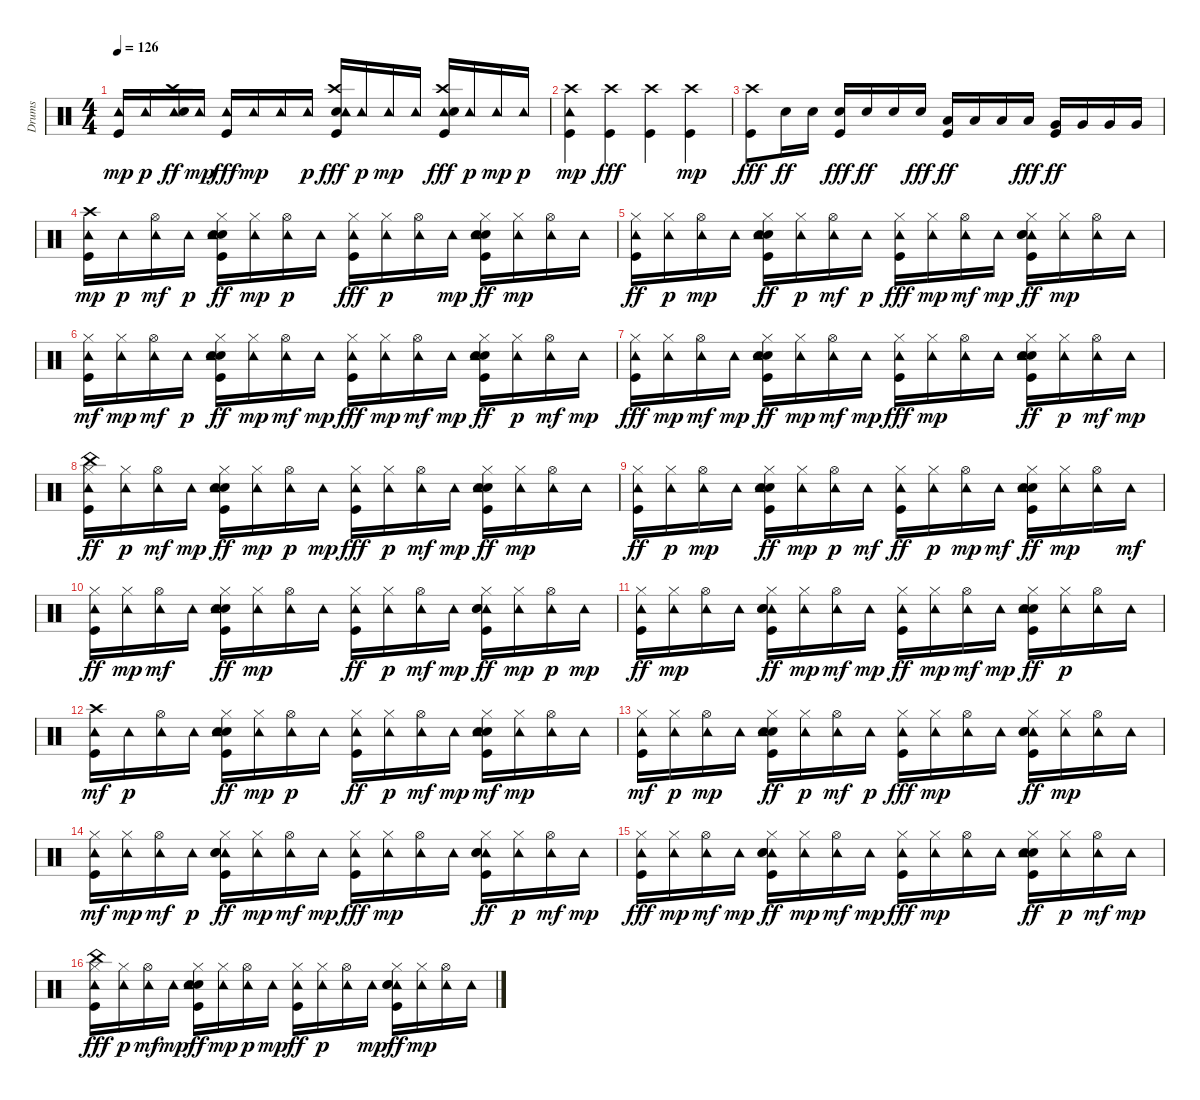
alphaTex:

\track ("Drums" "Drums") {instrument percussion}
\staff {score}
\articulation defaults
\ts (4 4)
\tempo 126
\clef neutral
\ks c
("Kick (hit)" "Tambourine (hit)").16{dy mp} "Tambourine (hit)".16{dy p} ("Crash high (hit)" "Tambourine (hit)" "Snare (hit) 2").16{dy ff} "Tambourine (hit)".16{dy mp} ("Tambourine (hit)" "Kick (hit)").16{dy fff} "Tambourine (hit)".16{dy mp} "Tambourine (hit)".16 "Tambourine (hit)".16{dy p} ("Snare (hit) 2" "Tambourine (hit)" "Crash high (hit)" "Kick (hit)").16{dy fff} "Tambourine (hit)".16{dy p} "Tambourine (hit)".16{dy mp} "Tambourine (hit)".16 ("Crash high (hit)" "Tambourine (hit)" "Snare (hit) 2" "Kick (hit)").16{dy fff} "Tambourine (hit)".16{dy p} "Tambourine (hit)".16{dy mp} "Tambourine (hit)".16{dy p} |
("Tambourine (hit)" "Kick (hit)" "Crash high (hit)").4{dy mp} ("Crash high (hit)" "Kick (hit)").4{dy fff} ("Crash high (hit)" "Kick (hit)").4 ("Kick (hit)" "Crash high (hit)").4{dy mp} |
("Crash high (hit)" "Kick (hit)").8{dy fff} "Snare (hit) 2".16{dy ff} "Snare (hit) 2".16 ("Kick (hit)" "Snare (hit) 2").16{dy fff} "Snare (hit) 2".16{dy ff} "Snare (hit) 2".16 "Snare (hit) 2".16{dy fff} ("Kick (hit)" "Low Tom (hit)").16{dy ff} "Low Tom (hit)".16 "Low Tom (hit)".16 "Low Tom (hit)".16{dy fff} ("Kick (hit)" "Very Low Tom (hit)").16{dy ff} "Very Low Tom (hit)".16 "Very Low Tom (hit)".16 "Very Low Tom (hit)".16 |
("Tambourine (hit)" "Kick (hit)" "Crash high (hit)").16{dy mp} "Tambourine (hit)".16{dy p} ("Tambourine (hit)" "Hi-Hat (open)").16{dy mf} "Tambourine (hit)".16{dy p} ("Hand Clap (hit)" "Tambourine (hit)" "Kick (hit)" "Snare (hit) 2" "Hi-Hat (closed)").16{dy ff} ("Tambourine (hit)" "Hi-Hat (closed)").16{dy mp} ("Hi-Hat (open)" "Tambourine (hit)").16{dy p} "Tambourine (hit)".16 ("Tambourine (hit)" "Hi-Hat (closed)" "Kick (hit)").16{dy fff} ("Hi-Hat (closed)" "Tambourine (hit)").16{dy p} ("Hi-Hat (open)" "Tambourine (hit)").16 "Tambourine (hit)".16{dy mp} ("Hand Clap (hit)" "Tambourine (hit)" "Kick (hit)" "Snare (hit) 2" "Hi-Hat (closed)").16{dy ff} ("Hi-Hat (closed)" "Tambourine (hit)").16{dy mp} ("Hi-Hat (open)" "Tambourine (hit)").16 "Tambourine (hit)".16 |
("Kick (hit)" "Tambourine (hit)" "Hi-Hat (closed)").16{dy ff} ("Hi-Hat (closed)" "Tambourine (hit)").16{dy p} ("Hi-Hat (open)" "Tambourine (hit)").16{dy mp} "Tambourine (hit)".16 ("Hand Clap (hit)" "Tambourine (hit)" "Kick (hit)" "Snare (hit) 2" "Hi-Hat (closed)").16{dy ff} ("Tambourine (hit)" "Hi-Hat (closed)").16{dy p} ("Tambourine (hit)" "Hi-Hat (open)").16{dy mf} "Tambourine (hit)".16{dy p} ("Tambourine (hit)" "Hi-Hat (closed)" "Kick (hit)").16{dy fff} ("Tambourine (hit)" "Hi-Hat (closed)").16{dy mp} ("Tambourine (hit)" "Hi-Hat (open)").16{dy mf} "Tambourine (hit)".16{dy mp} ("Tambourine (hit)" "Hi-Hat (closed)" "Kick (hit)" "Snare (hit) 2" "Hand Clap (hit)").16{dy ff} ("Tambourine (hit)" "Hi-Hat (closed)").16{dy mp} ("Hi-Hat (open)" "Tambourine (hit)").16 "Tambourine (hit)".16 |
("Hi-Hat (closed)" "Kick (hit)" "Tambourine (hit)").16{dy mf} ("Tambourine (hit)" "Hi-Hat (closed)").16{dy mp} ("Tambourine (hit)" "Hi-Hat (open)").16{dy mf} "Tambourine (hit)".16{dy p} ("Hand Clap (hit)" "Tambourine (hit)" "Hi-Hat (closed)" "Kick (hit)" "Snare (hit) 2").16{dy ff} ("Tambourine (hit)" "Hi-Hat (closed)").16{dy mp} ("Tambourine (hit)" "Hi-Hat (open)").16{dy mf} "Tambourine (hit)".16{dy mp} ("Tambourine (hit)" "Hi-Hat (closed)" "Kick (hit)").16{dy fff} ("Tambourine (hit)" "Hi-Hat (closed)").16{dy mp} ("Tambourine (hit)" "Hi-Hat (open)").16{dy mf} "Tambourine (hit)".16{dy mp} ("Hand Clap (hit)" "Tambourine (hit)" "Hi-Hat (closed)" "Kick (hit)" "Snare (hit) 2").16{dy ff} ("Tambourine (hit)" "Hi-Hat (closed)").16{dy p} ("Tambourine (hit)" "Hi-Hat (open)").16{dy mf} "Tambourine (hit)".16{dy mp} |
("Tambourine (hit)" "Hi-Hat (closed)" "Kick (hit)").16{dy fff} ("Tambourine (hit)" "Hi-Hat (closed)").16{dy mp} ("Tambourine (hit)" "Hi-Hat (open)").16{dy mf} "Tambourine (hit)".16{dy mp} ("Hand Clap (hit)" "Tambourine (hit)" "Hi-Hat (closed)" "Kick (hit)" "Snare (hit) 2").16{dy ff} ("Tambourine (hit)" "Hi-Hat (closed)").16{dy mp} ("Tambourine (hit)" "Hi-Hat (open)").16{dy mf} "Tambourine (hit)".16{dy mp} ("Tambourine (hit)" "Hi-Hat (closed)" "Kick (hit)").16{dy fff} ("Tambourine (hit)" "Hi-Hat (closed)").16{dy mp} ("Hi-Hat (open)" "Tambourine (hit)").16 "Tambourine (hit)".16 ("Hand Clap (hit)" "Kick (hit)" "Snare (hit) 2" "Tambourine (hit)" "Hi-Hat (closed)").16{dy ff} ("Tambourine (hit)" "Hi-Hat (closed)").16{dy p} ("Tambourine (hit)" "Hi-Hat (open)").16{dy mf} "Tambourine (hit)".16{dy mp} |
("Kick (hit)" "China (hit)" "Tambourine (hit)" "Hi-Hat (closed)").16{dy ff} ("Tambourine (hit)" "Hi-Hat (closed)").16{dy p} ("Tambourine (hit)" "Hi-Hat (open)").16{dy mf} "Tambourine (hit)".16{dy mp} ("Hand Clap (hit)" "Kick (hit)" "Snare (hit) 2" "Tambourine (hit)" "Hi-Hat (closed)").16{dy ff} ("Tambourine (hit)" "Hi-Hat (closed)").16{dy mp} ("Hi-Hat (open)" "Tambourine (hit)").16{dy p} "Tambourine (hit)".16{dy mp} ("Tambourine (hit)" "Hi-Hat (closed)" "Kick (hit)").16{dy fff} ("Hi-Hat (closed)" "Tambourine (hit)").16{dy p} ("Tambourine (hit)" "Hi-Hat (open)").16{dy mf} "Tambourine (hit)".16{dy mp} ("Hand Clap (hit)" "Tambourine (hit)" "Kick (hit)" "Snare (hit) 2" "Hi-Hat (closed)").16{dy ff} ("Tambourine (hit)" "Hi-Hat (closed)").16{dy mp} ("Hi-Hat (open)" "Tambourine (hit)").16 "Tambourine (hit)".16 |
("Kick (hit)" "Tambourine (hit)" "Hi-Hat (closed)").16{dy ff} ("Hi-Hat (closed)" "Tambourine (hit)").16{dy p} ("Hi-Hat (open)" "Tambourine (hit)").16{dy mp} "Tambourine (hit)".16 ("Kick (hit)" "Snare (hit) 2" "Hi-Hat (closed)" "Tambourine (hit)" "Hand Clap (hit)").16{dy ff} ("Tambourine (hit)" "Hi-Hat (closed)").16{dy mp} ("Hi-Hat (open)" "Tambourine (hit)").16{dy p} "Tambourine (hit)".16{dy mf} ("Kick (hit)" "Tambourine (hit)" "Hi-Hat (closed)").16{dy ff} ("Tambourine (hit)" "Hi-Hat (closed)").16{dy p} ("Hi-Hat (open)" "Tambourine (hit)").16{dy mp} "Tambourine (hit)".16{dy mf} ("Hand Clap (hit)" "Tambourine (hit)" "Hi-Hat (closed)" "Kick (hit)" "Snare (hit) 2").16{dy ff} ("Tambourine (hit)" "Hi-Hat (closed)").16{dy mp} ("Hi-Hat (open)" "Tambourine (hit)").16 "Tambourine (hit)".16{dy mf} |
("Kick (hit)" "Tambourine (hit)" "Hi-Hat (closed)").16{dy ff} ("Tambourine (hit)" "Hi-Hat (closed)").16{dy mp} ("Tambourine (hit)" "Hi-Hat (open)").16{dy mf} "Tambourine (hit)".16 ("Hand Clap (hit)" "Tambourine (hit)" "Kick (hit)" "Snare (hit) 2" "Hi-Hat (closed)").16{dy ff} ("Tambourine (hit)" "Hi-Hat (closed)").16{dy mp} ("Hi-Hat (open)" "Tambourine (hit)").16 "Tambourine (hit)".16 ("Kick (hit)" "Tambourine (hit)" "Hi-Hat (closed)").16{dy ff} ("Tambourine (hit)" "Hi-Hat (closed)").16{dy p} ("Tambourine (hit)" "Hi-Hat (open)").16{dy mf} "Tambourine (hit)".16{dy mp} ("Tambourine (hit)" "Hi-Hat (closed)" "Kick (hit)" "Snare (hit) 2" "Hand Clap (hit)").16{dy ff} ("Tambourine (hit)" "Hi-Hat (closed)").16{dy mp} ("Hi-Hat (open)" "Tambourine (hit)").16{dy p} "Tambourine (hit)".16{dy mp} |
("Kick (hit)" "Tambourine (hit)" "Hi-Hat (closed)").16{dy ff} ("Tambourine (hit)" "Hi-Hat (closed)").16{dy mp} ("Hi-Hat (open)" "Tambourine (hit)").16 "Tambourine (hit)".16 ("Hi-Hat (closed)" "Tambourine (hit)" "Kick (hit)" "Snare (hit) 2" "Hand Clap (hit)").16{dy ff} ("Hi-Hat (closed)" "Tambourine (hit)").16{dy mp} ("Tambourine (hit)" "Hi-Hat (open)").16{dy mf} "Tambourine (hit)".16{dy mp} ("Kick (hit)" "Tambourine (hit)" "Hi-Hat (closed)").16{dy ff} ("Tambourine (hit)" "Hi-Hat (closed)").16{dy mp} ("Tambourine (hit)" "Hi-Hat (open)").16{dy mf} "Tambourine (hit)".16{dy mp} ("Snare (hit) 2" "Kick (hit)" "Hand Clap (hit)" "Tambourine (hit)" "Hi-Hat (closed)").16{dy ff} ("Hi-Hat (closed)" "Tambourine (hit)").16{dy p} ("Hi-Hat (open)" "Tambourine (hit)").16 "Tambourine (hit)".16 |
("Kick (hit)" "Crash high (hit)" "Tambourine (hit)").16{dy mf} "Tambourine (hit)".16{dy p} ("Hi-Hat (open)" "Tambourine (hit)").16 "Tambourine (hit)".16 ("Kick (hit)" "Snare (hit) 2" "Hand Clap (hit)" "Tambourine (hit)" "Hi-Hat (closed)").16{dy ff} ("Tambourine (hit)" "Hi-Hat (closed)").16{dy mp} ("Hi-Hat (open)" "Tambourine (hit)").16{dy p} "Tambourine (hit)".16 ("Kick (hit)" "Tambourine (hit)" "Hi-Hat (closed)").16{dy ff} ("Tambourine (hit)" "Hi-Hat (closed)").16{dy p} ("Tambourine (hit)" "Hi-Hat (open)").16{dy mf} "Tambourine (hit)".16{dy mp} ("Hand Clap (hit)" "Kick (hit)" "Snare (hit) 2" "Tambourine (hit)" "Hi-Hat (closed)").16{dy mf} ("Tambourine (hit)" "Hi-Hat (closed)").16{dy mp} ("Hi-Hat (open)" "Tambourine (hit)").16 "Tambourine (hit)".16 |
("Hi-Hat (closed)" "Kick (hit)" "Tambourine (hit)").16{dy mf} ("Hi-Hat (closed)" "Tambourine (hit)").16{dy p} ("Hi-Hat (open)" "Tambourine (hit)").16{dy mp} "Tambourine (hit)".16 ("Kick (hit)" "Snare (hit) 2" "Tambourine (hit)" "Hand Clap (hit)" "Hi-Hat (closed)").16{dy ff} ("Tambourine (hit)" "Hi-Hat (closed)").16{dy p} ("Tambourine (hit)" "Hi-Hat (open)").16{dy mf} "Tambourine (hit)".16{dy p} ("Tambourine (hit)" "Hi-Hat (closed)" "Kick (hit)").16{dy fff} ("Tambourine (hit)" "Hi-Hat (closed)").16{dy mp} ("Hi-Hat (open)" "Tambourine (hit)").16 "Tambourine (hit)".16 ("Tambourine (hit)" "Hand Clap (hit)" "Hi-Hat (closed)" "Kick (hit)" "Snare (hit) 2").16{dy ff} ("Tambourine (hit)" "Hi-Hat (closed)").16{dy mp} ("Hi-Hat (open)" "Tambourine (hit)").16 "Tambourine (hit)".16 |
("Hi-Hat (closed)" "Kick (hit)" "Tambourine (hit)").16{dy mf} ("Tambourine (hit)" "Hi-Hat (closed)").16{dy mp} ("Tambourine (hit)" "Hi-Hat (open)").16{dy mf} "Tambourine (hit)".16{dy p} ("Tambourine (hit)" "Hand Clap (hit)" "Kick (hit)" "Snare (hit) 2" "Hi-Hat (closed)").16{dy ff} ("Tambourine (hit)" "Hi-Hat (closed)").16{dy mp} ("Tambourine (hit)" "Hi-Hat (open)").16{dy mf} "Tambourine (hit)".16{dy mp} ("Tambourine (hit)" "Hi-Hat (closed)" "Kick (hit)").16{dy fff} ("Hi-Hat (closed)" "Tambourine (hit)").16{dy mp} ("Hi-Hat (open)" "Tambourine (hit)").16 "Tambourine (hit)".16 ("Hi-Hat (closed)" "Tambourine (hit)" "Kick (hit)" "Snare (hit) 2" "Hand Clap (hit)").16{dy ff} ("Tambourine (hit)" "Hi-Hat (closed)").16{dy p} ("Tambourine (hit)" "Hi-Hat (open)").16{dy mf} "Tambourine (hit)".16{dy mp} |
("Tambourine (hit)" "Hi-Hat (closed)" "Kick (hit)").16{dy fff} ("Tambourine (hit)" "Hi-Hat (closed)").16{dy mp} ("Tambourine (hit)" "Hi-Hat (open)").16{dy mf} "Tambourine (hit)".16{dy mp} ("Tambourine (hit)" "Hi-Hat (closed)" "Hand Clap (hit)" "Kick (hit)" "Snare (hit) 2").16{dy ff} ("Tambourine (hit)" "Hi-Hat (closed)").16{dy mp} ("Tambourine (hit)" "Hi-Hat (open)").16{dy mf} "Tambourine (hit)".16{dy mp} ("Tambourine (hit)" "Hi-Hat (closed)" "Kick (hit)").16{dy fff} ("Hi-Hat (closed)" "Tambourine (hit)").16{dy mp} ("Hi-Hat (open)" "Tambourine (hit)").16 "Tambourine (hit)".16 ("Hand Clap (hit)" "Tambourine (hit)" "Hi-Hat (closed)" "Kick (hit)" "Snare (hit) 2").16{dy ff} ("Tambourine (hit)" "Hi-Hat (closed)").16{dy p} ("Tambourine (hit)" "Hi-Hat (open)").16{dy mf} "Tambourine (hit)".16{dy mp} |
("China (hit)" "Tambourine (hit)" "Hi-Hat (closed)" "Kick (hit)").16{dy fff} ("Tambourine (hit)" "Hi-Hat (closed)").16{dy p} ("Tambourine (hit)" "Hi-Hat (open)").16{dy mf} "Tambourine (hit)".16{dy mp} ("Hand Clap (hit)" "Kick (hit)" "Snare (hit) 2" "Tambourine (hit)" "Hi-Hat (closed)").16{dy ff} ("Tambourine (hit)" "Hi-Hat (closed)").16{dy mp} ("Hi-Hat (open)" "Tambourine (hit)").16{dy p} "Tambourine (hit)".16{dy mp} ("Tambourine (hit)" "Kick (hit)" "Hi-Hat (closed)").16{dy ff} ("Tambourine (hit)" "Hi-Hat (closed)").16{dy p} ("Hi-Hat (open)" "Tambourine (hit)").16 "Tambourine (hit)".16{dy mp} ("Tambourine (hit)" "Hi-Hat (closed)" "Kick (hit)" "Snare (hit) 2" "Hand Clap (hit)").16{dy ff} ("Tambourine (hit)" "Hi-Hat (closed)").16{dy mp} ("Hi-Hat (open)" "Tambourine (hit)").16 "Tambourine (hit)".16
